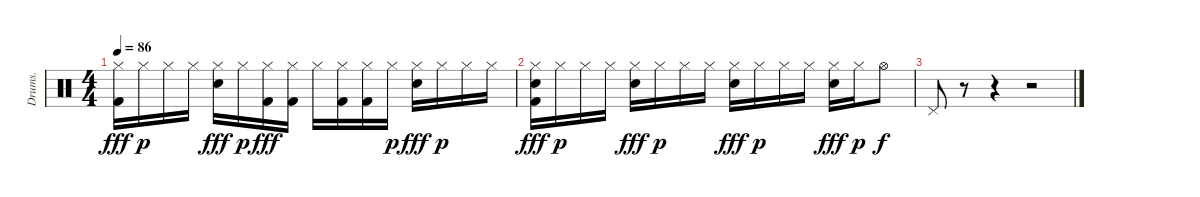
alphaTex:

\track ("Drums." "Drums.") {instrument percussion}
\staff {score}
\articulation defaults
\ts (4 4)
\tempo 86
\clef neutral
\ks c
("Hi-Hat (closed)" "Kick (hit) 2").16{dy fff} "Hi-Hat (closed)".16{dy p} "Hi-Hat (closed)".16 "Hi-Hat (closed)".16 ("Hi-Hat (closed)" "Electric Snare (hit)").16{dy fff} "Hi-Hat (closed)".16{dy p} ("Hi-Hat (closed)" "Kick (hit) 2").16{dy fff} ("Hi-Hat (closed)" "Kick (hit) 2").16 "Hi-Hat (closed)".16 ("Hi-Hat (closed)" "Kick (hit) 2").16 ("Hi-Hat (closed)" "Kick (hit) 2").16 "Hi-Hat (closed)".16{dy p} ("Hi-Hat (closed)" "Electric Snare (hit)").16{dy fff} "Hi-Hat (closed)".16{dy p} "Hi-Hat (closed)".16 "Hi-Hat (closed)".16 |
("Hi-Hat (closed)" "Electric Snare (hit)" "Kick (hit) 2").16{dy fff} "Hi-Hat (closed)".16{dy p} "Hi-Hat (closed)".16 "Hi-Hat (closed)".16 ("Hi-Hat (closed)" "Electric Snare (hit)").16{dy fff} "Hi-Hat (closed)".16{dy p} "Hi-Hat (closed)".16 "Hi-Hat (closed)".16 ("Hi-Hat (closed)" "Electric Snare (hit)").16{dy fff} "Hi-Hat (closed)".16{dy p} "Hi-Hat (closed)".16 "Hi-Hat (closed)".16 ("Hi-Hat (closed)" "Electric Snare (hit)").16{dy fff} "Hi-Hat (closed)".16{dy p} "Hi-Hat (open)".8{dy f} |
"Pedal Hi-Hat (hit)".8 r.8 r.4 r.2
